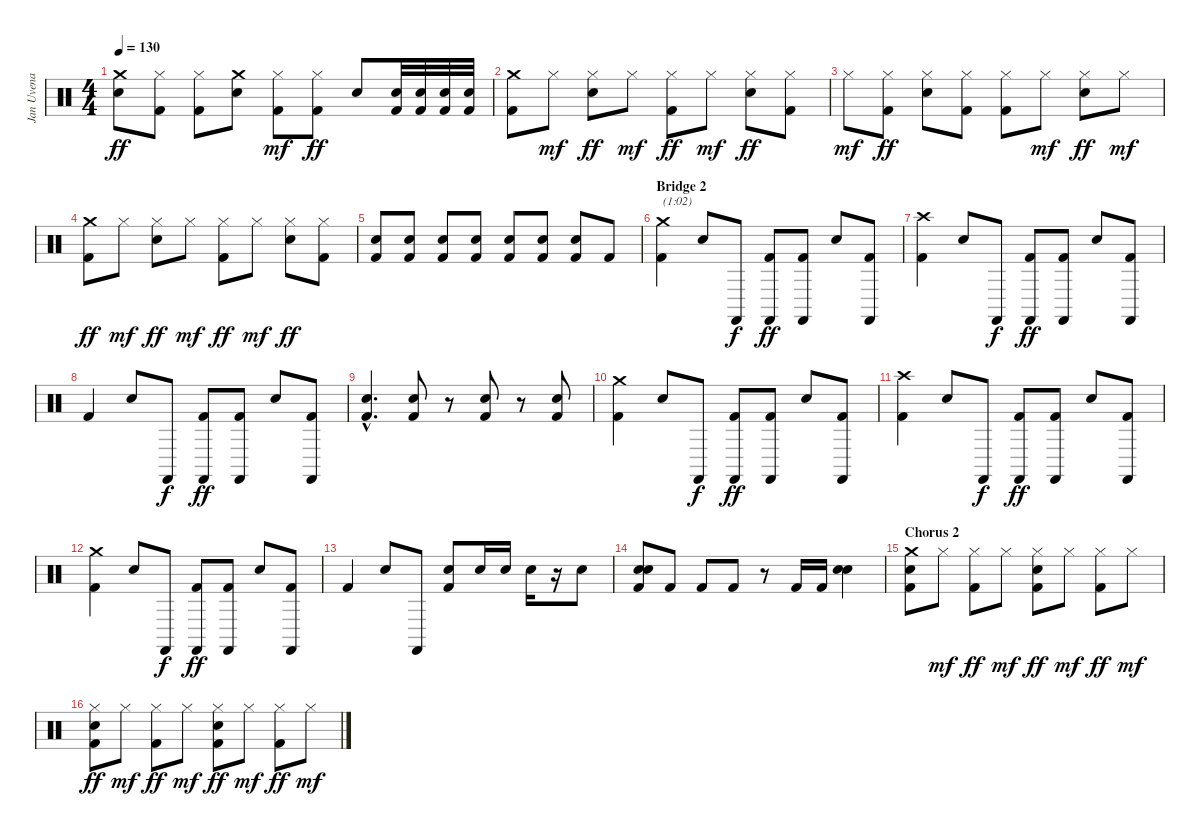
\track ("Jan Uvena" "Jan Uvena") {instrument percussion}
\staff {score}
\articulation defaults
\ts (4 4)
\tempo 130
\clef neutral
\ks c
("Crash medium (hit)" "Snare (hit) 2").8{dy ff} ("Hi-Hat (closed)" "Kick (hit) 2").8 ("Hi-Hat (closed)" "Kick (hit) 2").8 ("Crash medium (hit)" "Snare (hit) 2").8 ("Hi-Hat (closed)" "Kick (hit) 2").8{dy mf} ("Hi-Hat (closed)" "Kick (hit) 2").8{dy ff} "Snare (hit) 2".8 ("Snare (hit) 2" "Kick (hit) 2").32 ("Snare (hit) 2" "Kick (hit) 2").32 ("Snare (hit) 2" "Kick (hit) 2").32 ("Snare (hit) 2" "Kick (hit) 2").32 |
("Crash medium (hit)" "Kick (hit) 2").8 "Hi-Hat (closed)".8{dy mf} ("Hi-Hat (closed)" "Snare (hit) 2").8{dy ff} "Hi-Hat (closed)".8{dy mf} ("Hi-Hat (closed)" "Kick (hit) 2").8{dy ff} "Hi-Hat (closed)".8{dy mf} ("Hi-Hat (closed)" "Snare (hit) 2").8{dy ff} ("Hi-Hat (closed)" "Kick (hit) 2").8 |
"Hi-Hat (closed)".8{dy mf} ("Hi-Hat (closed)" "Kick (hit) 2").8{dy ff} ("Hi-Hat (closed)" "Snare (hit) 2").8 ("Hi-Hat (closed)" "Kick (hit) 2").8 ("Hi-Hat (closed)" "Kick (hit) 2").8 "Hi-Hat (closed)".8{dy mf} ("Hi-Hat (closed)" "Snare (hit) 2").8{dy ff} "Hi-Hat (closed)".8{dy mf} |
("Crash medium (hit)" "Kick (hit) 2").8{dy ff} "Hi-Hat (closed)".8{dy mf} ("Hi-Hat (closed)" "Snare (hit) 2").8{dy ff} "Hi-Hat (closed)".8{dy mf} ("Hi-Hat (closed)" "Kick (hit) 2").8{dy ff} "Hi-Hat (closed)".8{dy mf} ("Hi-Hat (closed)" "Snare (hit) 2").8{dy ff} ("Hi-Hat (closed)" "Kick (hit) 2").8 |
("Snare (hit) 2" "Kick (hit) 2").8 ("Snare (hit) 2" "Kick (hit) 2").8 ("Snare (hit) 2" "Kick (hit) 2").8 ("Snare (hit) 2" "Kick (hit) 2").8 ("Snare (hit) 2" "Kick (hit) 2").8 ("Snare (hit) 2" "Kick (hit) 2").8 ("Snare (hit) 2" "Kick (hit) 2").8 "Kick (hit) 2".8 |
\section ("" "Bridge 2")
("Crash medium (hit)" "Kick (hit) 2").4{txt "(1:02)"} "Snare (hit) 2".8 "Castanets (hit)".8{dy f} ("Castanets (hit)" "Kick (hit) 2").8{dy ff} ("Castanets (hit)" "Kick (hit) 2").8 "Snare (hit) 2".8 ("Castanets (hit)" "Kick (hit) 2").8 |
("Crash high (hit)" "Kick (hit) 2").4 "Snare (hit) 2".8 "Castanets (hit)".8{dy f} ("Castanets (hit)" "Kick (hit) 2").8{dy ff} ("Castanets (hit)" "Kick (hit) 2").8 "Snare (hit) 2".8 ("Castanets (hit)" "Kick (hit) 2").8 |
"Kick (hit) 2".4 "Snare (hit) 2".8 "Castanets (hit)".8{dy f} ("Castanets (hit)" "Kick (hit) 2").8{dy ff} ("Castanets (hit)" "Kick (hit) 2").8 "Snare (hit) 2".8 ("Castanets (hit)" "Kick (hit) 2").8 |
("Snare (hit) 2"{hac} "Kick (hit) 2"{hac}).4{d} ("Snare (hit) 2" "Kick (hit) 2").8 r.8 ("Snare (hit) 2" "Kick (hit) 2").8 r.8 ("Snare (hit) 2" "Kick (hit) 2").8 |
("Crash medium (hit)" "Kick (hit) 2").4 "Snare (hit) 2".8 "Castanets (hit)".8{dy f} ("Castanets (hit)" "Kick (hit) 2").8{dy ff} ("Castanets (hit)" "Kick (hit) 2").8 "Snare (hit) 2".8 ("Castanets (hit)" "Kick (hit) 2").8 |
("Crash high (hit)" "Kick (hit) 2").4 "Snare (hit) 2".8 "Castanets (hit)".8{dy f} ("Castanets (hit)" "Kick (hit) 2").8{dy ff} ("Castanets (hit)" "Kick (hit) 2").8 "Snare (hit) 2".8 ("Castanets (hit)" "Kick (hit) 2").8 |
("Crash medium (hit)" "Kick (hit) 2").4 "Snare (hit) 2".8 "Castanets (hit)".8{dy f} ("Castanets (hit)" "Kick (hit) 2").8{dy ff} ("Castanets (hit)" "Kick (hit) 2").8 "Snare (hit) 2".8 ("Castanets (hit)" "Kick (hit) 2").8 |
"Kick (hit) 2".4 "Snare (hit) 2".8 "Castanets (hit)".8 ("Snare (hit) 2" "Kick (hit) 2").8 "Snare (hit) 2".16 "Snare (hit) 2".16 "Snare (hit) 2".16 r.16 "Snare (hit) 2".8 |
("Electric Snare (hit)" "Snare (hit) 2" "Kick (hit) 2").8 "Kick (hit) 2".8 "Kick (hit) 2".8 "Kick (hit) 2".8 r.8 "Kick (hit) 2".16 "Kick (hit) 2".16 ("Electric Snare (hit)" "Snare (hit) 2").4 |
\section ("" "Chorus 2")
("Crash medium (hit)" "Snare (hit) 2" "Kick (hit) 2").8 "Hi-Hat (closed)".8{dy mf} ("Hi-Hat (closed)" "Kick (hit) 2").8{dy ff} "Hi-Hat (closed)".8{dy mf} ("Hi-Hat (closed)" "Snare (hit) 2" "Kick (hit) 2").8{dy ff} "Hi-Hat (closed)".8{dy mf} ("Hi-Hat (closed)" "Kick (hit) 2").8{dy ff} "Hi-Hat (closed)".8{dy mf} |
("Hi-Hat (closed)" "Snare (hit) 2" "Kick (hit) 2").8{dy ff} "Hi-Hat (closed)".8{dy mf} ("Hi-Hat (closed)" "Kick (hit) 2").8{dy ff} "Hi-Hat (closed)".8{dy mf} ("Hi-Hat (closed)" "Snare (hit) 2" "Kick (hit) 2").8{dy ff} "Hi-Hat (closed)".8{dy mf} ("Hi-Hat (closed)" "Kick (hit) 2").8{dy ff} "Hi-Hat (closed)".8{dy mf}
